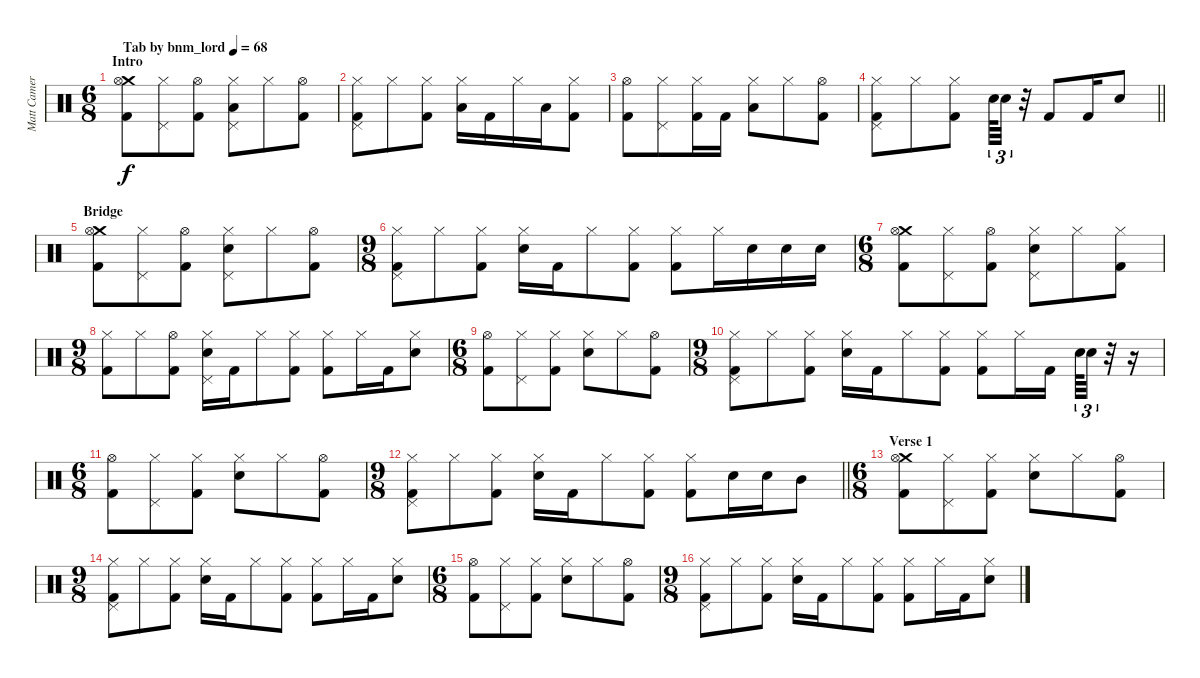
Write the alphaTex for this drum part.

\track ("Matt Cameron" "Matt Camer") {instrument percussion}
\staff {score}
\articulation defaults
\ts (6 8)
\section ("" "Intro")
\tempo (68 "Tab by bnm_lord")
\clef neutral
\ks c
("Crash medium (hit)" "Hi-Hat (open)" "Kick (hit) 2").8{dy f} ("Pedal Hi-Hat (hit)" "Hi-Hat (closed)").8 ("Hi-Hat (open)" "Kick (hit) 2").8 ("Pedal Hi-Hat (hit)" "Hi-Hat (closed)" "Low Tom (hit)").8 "Hi-Hat (closed)".8 ("Hi-Hat (open)" "Kick (hit) 2").8 |
("Pedal Hi-Hat (hit)" "Hi-Hat (closed)" "Kick (hit) 2").8 "Hi-Hat (closed)".8 ("Hi-Hat (closed)" "Kick (hit) 2").8 ("Hi-Hat (closed)" "Low Tom (hit)").16 "Kick (hit) 2".16 "Hi-Hat (closed)".16 "Low Tom (hit)".16 ("Hi-Hat (closed)" "Kick (hit) 2").8 |
("Hi-Hat (open)" "Kick (hit) 2").8 ("Pedal Hi-Hat (hit)" "Hi-Hat (closed)").8 ("Hi-Hat (closed)" "Kick (hit) 2").16 "Kick (hit) 2".16 ("Hi-Hat (closed)" "Low Tom (hit)").8 "Hi-Hat (closed)".8 ("Hi-Hat (open)" "Kick (hit) 2").8 |
\barLineRight lightlight
("Pedal Hi-Hat (hit)" "Hi-Hat (closed)" "Kick (hit) 2").8 "Hi-Hat (closed)".8 ("Hi-Hat (closed)" "Kick (hit) 2").8 "Electric Snare (hit)".64{tu (3 2)} "Electric Snare (hit)".32{tu (3 2)} r.32 "Kick (hit) 2".8 "Kick (hit) 2".16 "Electric Snare (hit)".8 |
\section ("" "Bridge")
("Crash medium (hit)" "Hi-Hat (open)" "Kick (hit) 2").8 ("Pedal Hi-Hat (hit)" "Hi-Hat (closed)").8 ("Hi-Hat (open)" "Kick (hit) 2").8 ("Pedal Hi-Hat (hit)" "Hi-Hat (closed)" "Electric Snare (hit)").8 "Hi-Hat (closed)".8 ("Hi-Hat (open)" "Kick (hit) 2").8 |
\ts (9 8)
("Pedal Hi-Hat (hit)" "Hi-Hat (closed)" "Kick (hit) 2").8 "Hi-Hat (closed)".8 ("Hi-Hat (closed)" "Kick (hit) 2").8 ("Hi-Hat (closed)" "Electric Snare (hit)").16 "Kick (hit) 2".16 "Hi-Hat (closed)".8 ("Hi-Hat (closed)" "Kick (hit) 2").8 ("Hi-Hat (closed)" "Kick (hit) 2").8 "Hi-Hat (closed)".16 "Electric Snare (hit)".16 "Electric Snare (hit)".16 "Electric Snare (hit)".16 |
\ts (6 8)
("Crash medium (hit)" "Hi-Hat (open)" "Kick (hit) 2").8 ("Pedal Hi-Hat (hit)" "Hi-Hat (closed)").8 ("Hi-Hat (open)" "Kick (hit) 2").8 ("Pedal Hi-Hat (hit)" "Hi-Hat (closed)" "Electric Snare (hit)").8 "Hi-Hat (closed)".8 ("Hi-Hat (closed)" "Kick (hit) 2").8 |
\ts (9 8)
("Hi-Hat (closed)" "Kick (hit) 2").8 "Hi-Hat (closed)".8 ("Hi-Hat (open)" "Kick (hit) 2").8 ("Pedal Hi-Hat (hit)" "Hi-Hat (closed)" "Electric Snare (hit)").16 "Kick (hit) 2".16 "Hi-Hat (closed)".8 ("Hi-Hat (closed)" "Kick (hit) 2").8 ("Hi-Hat (closed)" "Kick (hit) 2").8 "Hi-Hat (closed)".16 "Kick (hit) 2".16 ("Hi-Hat (closed)" "Electric Snare (hit)").8 |
\ts (6 8)
("Hi-Hat (open)" "Kick (hit) 2").8 ("Pedal Hi-Hat (hit)" "Hi-Hat (closed)").8 ("Hi-Hat (closed)" "Kick (hit) 2").8 ("Hi-Hat (closed)" "Electric Snare (hit)").8 "Hi-Hat (closed)".8 ("Hi-Hat (open)" "Kick (hit) 2").8 |
\ts (9 8)
("Pedal Hi-Hat (hit)" "Hi-Hat (closed)" "Kick (hit) 2").8 "Hi-Hat (closed)".8 ("Hi-Hat (closed)" "Kick (hit) 2").8 ("Hi-Hat (closed)" "Electric Snare (hit)").16 "Kick (hit) 2".16 "Hi-Hat (closed)".8 ("Hi-Hat (closed)" "Kick (hit) 2").8 ("Hi-Hat (closed)" "Kick (hit) 2").8 "Hi-Hat (closed)".16 "Kick (hit) 2".16{beam splitsecondary} "Electric Snare (hit)".64{tu (3 2)} "Electric Snare (hit)".32{tu (3 2)} r.32 r.16 |
\ts (6 8)
("Hi-Hat (open)" "Kick (hit) 2").8 ("Pedal Hi-Hat (hit)" "Hi-Hat (closed)").8 ("Hi-Hat (closed)" "Kick (hit) 2").8 ("Hi-Hat (closed)" "Electric Snare (hit)").8 "Hi-Hat (closed)".8 ("Hi-Hat (open)" "Kick (hit) 2").8 |
\ts (9 8)
\barLineRight lightlight
("Pedal Hi-Hat (hit)" "Hi-Hat (closed)" "Kick (hit) 2").8 "Hi-Hat (closed)".8 ("Hi-Hat (closed)" "Kick (hit) 2").8 ("Hi-Hat (closed)" "Electric Snare (hit)").16 "Kick (hit) 2".16 "Hi-Hat (closed)".8 ("Hi-Hat (closed)" "Kick (hit) 2").8 ("Hi-Hat (closed)" "Kick (hit) 2").8 "Electric Snare (hit)".16 "Electric Snare (hit)".16 "Mid Tom (hit)".8 |
\ts (6 8)
\section ("" "Verse 1")
("Crash medium (hit)" "Hi-Hat (open)" "Kick (hit) 2").8 ("Pedal Hi-Hat (hit)" "Hi-Hat (closed)").8 ("Hi-Hat (closed)" "Kick (hit) 2").8 ("Hi-Hat (closed)" "Electric Snare (hit)").8 "Hi-Hat (closed)".8 ("Hi-Hat (open)" "Kick (hit) 2").8 |
\ts (9 8)
("Pedal Hi-Hat (hit)" "Hi-Hat (closed)" "Kick (hit) 2").8 "Hi-Hat (closed)".8 ("Hi-Hat (closed)" "Kick (hit) 2").8 ("Hi-Hat (closed)" "Electric Snare (hit)").16 "Kick (hit) 2".16 "Hi-Hat (closed)".8 ("Hi-Hat (closed)" "Kick (hit) 2").8 ("Hi-Hat (closed)" "Kick (hit) 2").8 "Hi-Hat (closed)".16 "Kick (hit) 2".16 ("Hi-Hat (closed)" "Electric Snare (hit)").8 |
\ts (6 8)
("Hi-Hat (open)" "Kick (hit) 2").8 ("Pedal Hi-Hat (hit)" "Hi-Hat (closed)").8 ("Hi-Hat (closed)" "Kick (hit) 2").8 ("Hi-Hat (closed)" "Electric Snare (hit)").8 "Hi-Hat (closed)".8 ("Hi-Hat (open)" "Kick (hit) 2").8 |
\ts (9 8)
("Pedal Hi-Hat (hit)" "Hi-Hat (closed)" "Kick (hit) 2").8 "Hi-Hat (closed)".8 ("Hi-Hat (closed)" "Kick (hit) 2").8 ("Hi-Hat (closed)" "Electric Snare (hit)").16 "Kick (hit) 2".16 "Hi-Hat (closed)".8 ("Hi-Hat (closed)" "Kick (hit) 2").8 ("Hi-Hat (closed)" "Kick (hit) 2").8 "Hi-Hat (closed)".16 "Kick (hit) 2".16 ("Hi-Hat (closed)" "Electric Snare (hit)").8
